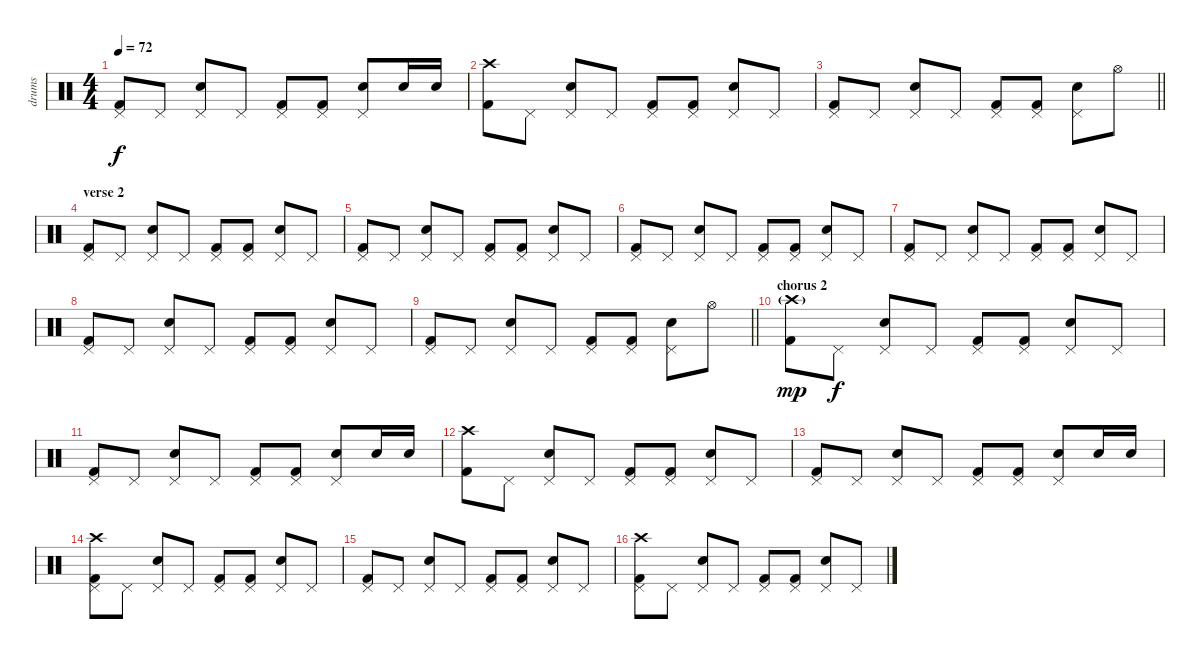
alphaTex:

\track ("drums" "drums") {instrument percussion}
\staff {score}
\articulation defaults
\ts (4 4)
\tempo 72
\clef neutral
\ks c
("Kick (hit) 2" "Pedal Hi-Hat (hit)").8{dy f} "Pedal Hi-Hat (hit)".8 ("Electric Snare (hit)" "Pedal Hi-Hat (hit)").8 "Pedal Hi-Hat (hit)".8 ("Kick (hit) 2" "Pedal Hi-Hat (hit)").8 ("Kick (hit) 2" "Pedal Hi-Hat (hit)").8 ("Electric Snare (hit)" "Pedal Hi-Hat (hit)").8 "Electric Snare (hit)".16 "Electric Snare (hit)".16 |
("Kick (hit) 2" "Crash high (hit)").8 "Pedal Hi-Hat (hit)".8 ("Electric Snare (hit)" "Pedal Hi-Hat (hit)").8 "Pedal Hi-Hat (hit)".8 ("Kick (hit) 2" "Pedal Hi-Hat (hit)").8 ("Kick (hit) 2" "Pedal Hi-Hat (hit)").8 ("Electric Snare (hit)" "Pedal Hi-Hat (hit)").8 "Pedal Hi-Hat (hit)".8 |
\barLineRight lightlight
("Kick (hit) 2" "Pedal Hi-Hat (hit)").8 "Pedal Hi-Hat (hit)".8 ("Electric Snare (hit)" "Pedal Hi-Hat (hit)").8 "Pedal Hi-Hat (hit)".8 ("Kick (hit) 2" "Pedal Hi-Hat (hit)").8 ("Kick (hit) 2" "Pedal Hi-Hat (hit)").8 ("Electric Snare (hit)" "Pedal Hi-Hat (hit)").8 "Hi-Hat (open)".8 |
\section ("" "verse 2")
("Kick (hit) 2" "Pedal Hi-Hat (hit)").8 "Pedal Hi-Hat (hit)".8 ("Electric Snare (hit)" "Pedal Hi-Hat (hit)").8 "Pedal Hi-Hat (hit)".8 ("Kick (hit) 2" "Pedal Hi-Hat (hit)").8 ("Kick (hit) 2" "Pedal Hi-Hat (hit)").8 ("Electric Snare (hit)" "Pedal Hi-Hat (hit)").8 "Pedal Hi-Hat (hit)".8 |
("Kick (hit) 2" "Pedal Hi-Hat (hit)").8 "Pedal Hi-Hat (hit)".8 ("Electric Snare (hit)" "Pedal Hi-Hat (hit)").8 "Pedal Hi-Hat (hit)".8 ("Kick (hit) 2" "Pedal Hi-Hat (hit)").8 ("Kick (hit) 2" "Pedal Hi-Hat (hit)").8 ("Electric Snare (hit)" "Pedal Hi-Hat (hit)").8 "Pedal Hi-Hat (hit)".8 |
("Kick (hit) 2" "Pedal Hi-Hat (hit)").8 "Pedal Hi-Hat (hit)".8 ("Electric Snare (hit)" "Pedal Hi-Hat (hit)").8 "Pedal Hi-Hat (hit)".8 ("Kick (hit) 2" "Pedal Hi-Hat (hit)").8 ("Kick (hit) 2" "Pedal Hi-Hat (hit)").8 ("Electric Snare (hit)" "Pedal Hi-Hat (hit)").8 "Pedal Hi-Hat (hit)".8 |
("Kick (hit) 2" "Pedal Hi-Hat (hit)").8 "Pedal Hi-Hat (hit)".8 ("Electric Snare (hit)" "Pedal Hi-Hat (hit)").8 "Pedal Hi-Hat (hit)".8 ("Kick (hit) 2" "Pedal Hi-Hat (hit)").8 ("Kick (hit) 2" "Pedal Hi-Hat (hit)").8 ("Electric Snare (hit)" "Pedal Hi-Hat (hit)").8 "Pedal Hi-Hat (hit)".8 |
("Kick (hit) 2" "Pedal Hi-Hat (hit)").8 "Pedal Hi-Hat (hit)".8 ("Electric Snare (hit)" "Pedal Hi-Hat (hit)").8 "Pedal Hi-Hat (hit)".8 ("Kick (hit) 2" "Pedal Hi-Hat (hit)").8 ("Kick (hit) 2" "Pedal Hi-Hat (hit)").8 ("Electric Snare (hit)" "Pedal Hi-Hat (hit)").8 "Pedal Hi-Hat (hit)".8 |
\barLineRight lightlight
("Kick (hit) 2" "Pedal Hi-Hat (hit)").8 "Pedal Hi-Hat (hit)".8 ("Electric Snare (hit)" "Pedal Hi-Hat (hit)").8 "Pedal Hi-Hat (hit)".8 ("Kick (hit) 2" "Pedal Hi-Hat (hit)").8 ("Kick (hit) 2" "Pedal Hi-Hat (hit)").8 ("Electric Snare (hit)" "Pedal Hi-Hat (hit)").8 "Hi-Hat (open)".8 |
\section ("" "chorus 2")
("Kick (hit) 2" "Crash high (hit)"{g}).8{dy mp} "Pedal Hi-Hat (hit)".8{dy f} ("Electric Snare (hit)" "Pedal Hi-Hat (hit)").8 "Pedal Hi-Hat (hit)".8 ("Kick (hit) 2" "Pedal Hi-Hat (hit)").8 ("Kick (hit) 2" "Pedal Hi-Hat (hit)").8 ("Electric Snare (hit)" "Pedal Hi-Hat (hit)").8 "Pedal Hi-Hat (hit)".8 |
("Kick (hit) 2" "Pedal Hi-Hat (hit)").8 "Pedal Hi-Hat (hit)".8 ("Electric Snare (hit)" "Pedal Hi-Hat (hit)").8 "Pedal Hi-Hat (hit)".8 ("Kick (hit) 2" "Pedal Hi-Hat (hit)").8 ("Kick (hit) 2" "Pedal Hi-Hat (hit)").8 ("Electric Snare (hit)" "Pedal Hi-Hat (hit)").8 "Electric Snare (hit)".16 "Electric Snare (hit)".16 |
("Kick (hit) 2" "Crash high (hit)").8 "Pedal Hi-Hat (hit)".8 ("Electric Snare (hit)" "Pedal Hi-Hat (hit)").8 "Pedal Hi-Hat (hit)".8 ("Kick (hit) 2" "Pedal Hi-Hat (hit)").8 ("Kick (hit) 2" "Pedal Hi-Hat (hit)").8 ("Electric Snare (hit)" "Pedal Hi-Hat (hit)").8 "Pedal Hi-Hat (hit)".8 |
("Kick (hit) 2" "Pedal Hi-Hat (hit)").8 "Pedal Hi-Hat (hit)".8 ("Electric Snare (hit)" "Pedal Hi-Hat (hit)").8 "Pedal Hi-Hat (hit)".8 ("Kick (hit) 2" "Pedal Hi-Hat (hit)").8 ("Kick (hit) 2" "Pedal Hi-Hat (hit)").8 ("Electric Snare (hit)" "Pedal Hi-Hat (hit)").8 "Electric Snare (hit)".16 "Electric Snare (hit)".16 |
("Kick (hit) 2" "Pedal Hi-Hat (hit)" "Crash high (hit)").8 "Pedal Hi-Hat (hit)".8 ("Electric Snare (hit)" "Pedal Hi-Hat (hit)").8 "Pedal Hi-Hat (hit)".8 ("Kick (hit) 2" "Pedal Hi-Hat (hit)").8 ("Kick (hit) 2" "Pedal Hi-Hat (hit)").8 ("Electric Snare (hit)" "Pedal Hi-Hat (hit)").8 "Pedal Hi-Hat (hit)".8 |
("Kick (hit) 2" "Pedal Hi-Hat (hit)").8 "Pedal Hi-Hat (hit)".8 ("Electric Snare (hit)" "Pedal Hi-Hat (hit)").8 "Pedal Hi-Hat (hit)".8 ("Kick (hit) 2" "Pedal Hi-Hat (hit)").8 ("Kick (hit) 2" "Pedal Hi-Hat (hit)").8 ("Electric Snare (hit)" "Pedal Hi-Hat (hit)").8 "Pedal Hi-Hat (hit)".8 |
("Kick (hit) 2" "Pedal Hi-Hat (hit)" "Crash high (hit)").8 "Pedal Hi-Hat (hit)".8 ("Electric Snare (hit)" "Pedal Hi-Hat (hit)").8 "Pedal Hi-Hat (hit)".8 ("Kick (hit) 2" "Pedal Hi-Hat (hit)").8 ("Kick (hit) 2" "Pedal Hi-Hat (hit)").8 ("Electric Snare (hit)" "Pedal Hi-Hat (hit)").8 "Pedal Hi-Hat (hit)".8
